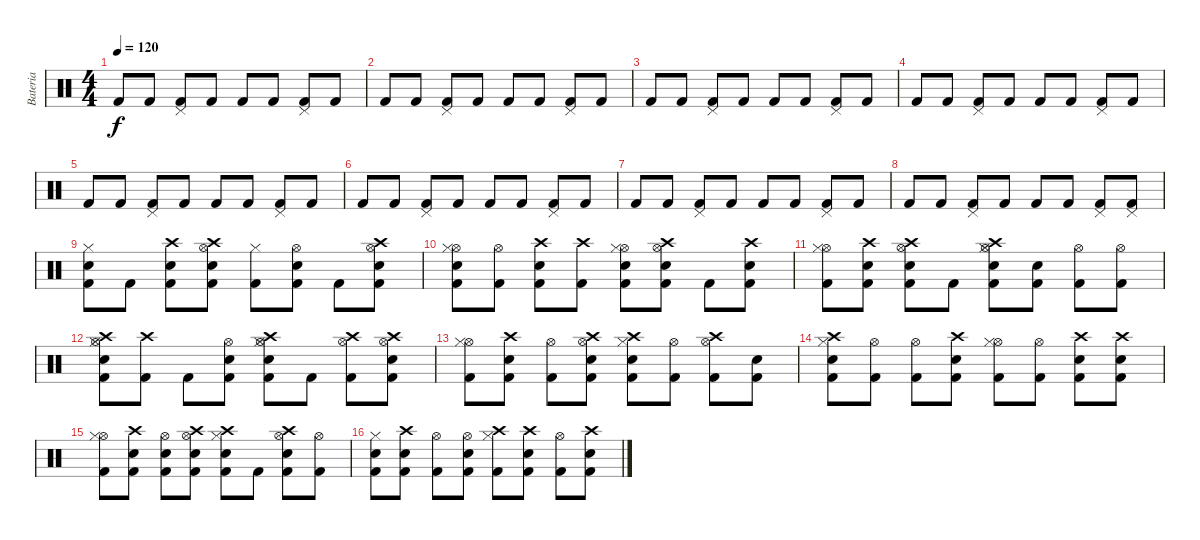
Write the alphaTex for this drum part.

\track ("Bateria" "Bateria") {instrument percussion}
\staff {score}
\articulation defaults
\ts (4 4)
\tempo 120
\clef neutral
\ks c "Kick (hit) 2".8{dy f} "Kick (hit) 2".8
("Kick (hit) 2" "Pedal Hi-Hat (hit)").8 "Kick (hit) 2".8 "Kick (hit) 2".8 "Kick (hit) 2".8 ("Kick (hit) 2" "Pedal Hi-Hat (hit)").8 "Kick (hit) 2".8 |
"Kick (hit) 2".8 "Kick (hit) 2".8 ("Kick (hit) 2" "Pedal Hi-Hat (hit)").8 "Kick (hit) 2".8 "Kick (hit) 2".8 "Kick (hit) 2".8 ("Kick (hit) 2" "Pedal Hi-Hat (hit)").8 "Kick (hit) 2".8 |
"Kick (hit) 2".8 "Kick (hit) 2".8 ("Kick (hit) 2" "Pedal Hi-Hat (hit)").8 "Kick (hit) 2".8 "Kick (hit) 2".8 "Kick (hit) 2".8 ("Kick (hit) 2" "Pedal Hi-Hat (hit)").8 "Kick (hit) 2".8 |
"Kick (hit) 2".8 "Kick (hit) 2".8 ("Kick (hit) 2" "Pedal Hi-Hat (hit)").8 "Kick (hit) 2".8 "Kick (hit) 2".8 "Kick (hit) 2".8 ("Kick (hit) 2" "Pedal Hi-Hat (hit)").8 "Kick (hit) 2".8 |
"Kick (hit) 2".8 "Kick (hit) 2".8 ("Kick (hit) 2" "Pedal Hi-Hat (hit)").8 "Kick (hit) 2".8 "Kick (hit) 2".8 "Kick (hit) 2".8 ("Kick (hit) 2" "Pedal Hi-Hat (hit)").8 "Kick (hit) 2".8 |
"Kick (hit) 2".8 "Kick (hit) 2".8 ("Kick (hit) 2" "Pedal Hi-Hat (hit)").8 "Kick (hit) 2".8 "Kick (hit) 2".8 "Kick (hit) 2".8 ("Kick (hit) 2" "Pedal Hi-Hat (hit)").8 "Kick (hit) 2".8 |
"Kick (hit) 2".8 "Kick (hit) 2".8 ("Kick (hit) 2" "Pedal Hi-Hat (hit)").8 "Kick (hit) 2".8 "Kick (hit) 2".8 "Kick (hit) 2".8 ("Kick (hit) 2" "Pedal Hi-Hat (hit)").8 "Kick (hit) 2".8 |
"Kick (hit) 2".8 "Kick (hit) 2".8 ("Kick (hit) 2" "Pedal Hi-Hat (hit)").8 "Kick (hit) 2".8 "Kick (hit) 2".8 "Kick (hit) 2".8 ("Kick (hit) 2" "Pedal Hi-Hat (hit)").8 ("Kick (hit) 2" "Pedal Hi-Hat (hit)").8 |
("Kick (hit) 2" "Snare (hit) 2" "Hi-Hat (closed)").8 "Kick (hit) 2".8 ("Kick (hit) 2" "Snare (hit) 2" "Crash high (hit)").8 ("Kick (hit) 2" "Hi-Hat (open)" "Snare (hit) 2" "Crash high (hit)").8 ("Kick (hit) 2" "Hi-Hat (closed)").8 ("Kick (hit) 2" "Hi-Hat (open)" "Snare (hit) 2").8 "Kick (hit) 2".8 ("Kick (hit) 2" "Hi-Hat (open)" "Snare (hit) 2" "Crash high (hit)").8 |
("Kick (hit) 2" "Hi-Hat (open)" "Snare (hit) 2" "Hi-Hat (closed)").8 ("Kick (hit) 2" "Hi-Hat (open)").8 ("Kick (hit) 2" "Snare (hit) 2" "Crash high (hit)").8 ("Kick (hit) 2" "Crash high (hit)").8 ("Kick (hit) 2" "Hi-Hat (open)" "Snare (hit) 2" "Hi-Hat (closed)").8 ("Kick (hit) 2" "Hi-Hat (open)" "Snare (hit) 2" "Crash high (hit)").8 "Kick (hit) 2".8 ("Kick (hit) 2" "Snare (hit) 2" "Crash high (hit)").8 |
("Kick (hit) 2" "Hi-Hat (open)" "Hi-Hat (closed)").8 ("Kick (hit) 2" "Snare (hit) 2" "Crash high (hit)").8 ("Kick (hit) 2" "Hi-Hat (open)" "Snare (hit) 2" "Crash high (hit)").8 "Kick (hit) 2".8 ("Kick (hit) 2" "Hi-Hat (open)" "Snare (hit) 2" "Hi-Hat (closed)" "Crash high (hit)").8 ("Kick (hit) 2" "Snare (hit) 2").8 ("Kick (hit) 2" "Hi-Hat (open)").8 ("Kick (hit) 2" "Hi-Hat (open)").8 |
("Kick (hit) 2" "Hi-Hat (open)" "Snare (hit) 2" "Hi-Hat (closed)" "Crash high (hit)").8 ("Kick (hit) 2" "Crash high (hit)").8 "Kick (hit) 2".8 ("Kick (hit) 2" "Hi-Hat (open)" "Snare (hit) 2").8 ("Kick (hit) 2" "Hi-Hat (open)" "Snare (hit) 2" "Hi-Hat (closed)" "Crash high (hit)").8 "Kick (hit) 2".8 ("Kick (hit) 2" "Hi-Hat (open)" "Crash high (hit)").8 ("Kick (hit) 2" "Hi-Hat (open)" "Snare (hit) 2" "Crash high (hit)").8 |
("Kick (hit) 2" "Hi-Hat (open)" "Hi-Hat (closed)").8 ("Kick (hit) 2" "Snare (hit) 2" "Crash high (hit)").8 ("Kick (hit) 2" "Hi-Hat (open)").8 ("Kick (hit) 2" "Hi-Hat (open)" "Snare (hit) 2" "Crash high (hit)").8 ("Kick (hit) 2" "Snare (hit) 2" "Hi-Hat (closed)" "Crash high (hit)").8 ("Kick (hit) 2" "Hi-Hat (open)").8 ("Kick (hit) 2" "Hi-Hat (open)" "Crash high (hit)").8 ("Kick (hit) 2" "Snare (hit) 2").8 |
("Kick (hit) 2" "Snare (hit) 2" "Hi-Hat (closed)" "Crash high (hit)").8 ("Kick (hit) 2" "Hi-Hat (open)").8 ("Kick (hit) 2" "Hi-Hat (open)").8 ("Kick (hit) 2" "Snare (hit) 2" "Crash high (hit)").8 ("Kick (hit) 2" "Hi-Hat (open)" "Hi-Hat (closed)").8 ("Kick (hit) 2" "Hi-Hat (open)").8 ("Kick (hit) 2" "Snare (hit) 2" "Crash high (hit)").8 ("Kick (hit) 2" "Snare (hit) 2" "Crash high (hit)").8 |
("Kick (hit) 2" "Hi-Hat (open)" "Hi-Hat (closed)").8 ("Kick (hit) 2" "Snare (hit) 2" "Crash high (hit)").8 ("Kick (hit) 2" "Hi-Hat (open)" "Snare (hit) 2").8 ("Kick (hit) 2" "Hi-Hat (open)" "Snare (hit) 2" "Crash high (hit)").8 ("Kick (hit) 2" "Snare (hit) 2" "Hi-Hat (closed)" "Crash high (hit)").8 "Kick (hit) 2".8 ("Kick (hit) 2" "Hi-Hat (open)" "Snare (hit) 2" "Crash high (hit)").8 ("Kick (hit) 2" "Hi-Hat (open)").8 |
("Kick (hit) 2" "Snare (hit) 2" "Hi-Hat (closed)").8 ("Kick (hit) 2" "Snare (hit) 2" "Crash high (hit)").8 ("Kick (hit) 2" "Hi-Hat (open)").8 ("Kick (hit) 2" "Hi-Hat (open)" "Snare (hit) 2").8 ("Kick (hit) 2" "Hi-Hat (closed)" "Crash high (hit)").8 ("Kick (hit) 2" "Snare (hit) 2" "Crash high (hit)").8 ("Kick (hit) 2" "Hi-Hat (open)").8 ("Kick (hit) 2" "Snare (hit) 2" "Crash high (hit)").8
